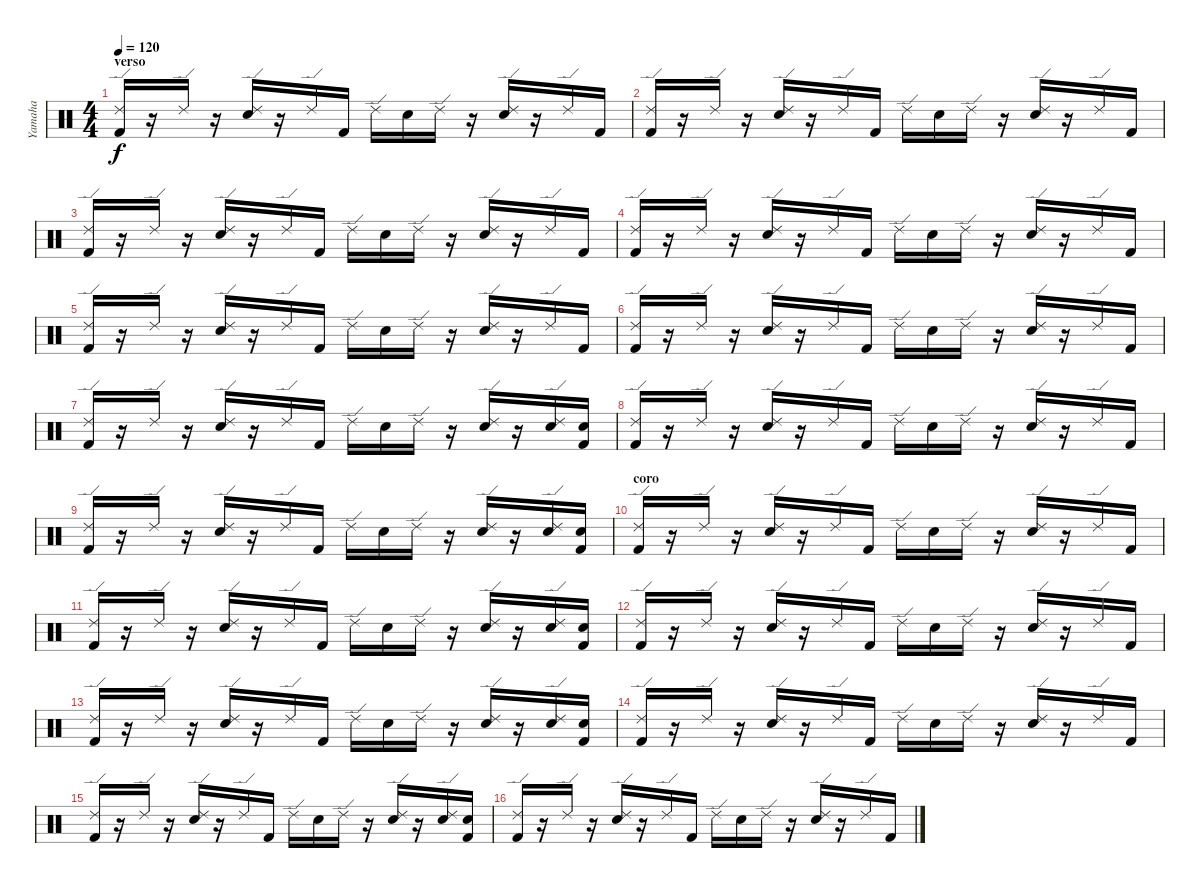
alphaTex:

\track ("Yamaha" "Yamaha") {instrument percussion}
\staff {score}
\articulation defaults
\ts (4 4)
\section ("" "verso ")
\tempo 120
\clef neutral
\ks c
("Ride (edge) 2" "Kick (hit) 2").16{dy f} r.16 "Ride (edge) 2".16 r.16 ("Ride (edge) 2" "Snare (hit) 2").16 r.16 "Ride (edge) 2".16 "Kick (hit) 2".16 "Ride (edge) 2".16 "Snare (hit) 2".16 "Ride (edge) 2".16 r.16 ("Ride (edge) 2" "Snare (hit) 2").16 r.16 "Ride (edge) 2".16 "Kick (hit) 2".16 |
("Ride (edge) 2" "Kick (hit) 2").16 r.16 "Ride (edge) 2".16 r.16 ("Ride (edge) 2" "Snare (hit) 2").16 r.16 "Ride (edge) 2".16 "Kick (hit) 2".16 "Ride (edge) 2".16 "Snare (hit) 2".16 "Ride (edge) 2".16 r.16 ("Ride (edge) 2" "Snare (hit) 2").16 r.16 "Ride (edge) 2".16 "Kick (hit) 2".16 |
("Ride (edge) 2" "Kick (hit) 2").16 r.16 "Ride (edge) 2".16 r.16 ("Ride (edge) 2" "Snare (hit) 2").16 r.16 "Ride (edge) 2".16 "Kick (hit) 2".16 "Ride (edge) 2".16 "Snare (hit) 2".16 "Ride (edge) 2".16 r.16 ("Ride (edge) 2" "Snare (hit) 2").16 r.16 "Ride (edge) 2".16 "Kick (hit) 2".16 |
("Ride (edge) 2" "Kick (hit) 2").16 r.16 "Ride (edge) 2".16 r.16 ("Ride (edge) 2" "Snare (hit) 2").16 r.16 "Ride (edge) 2".16 "Kick (hit) 2".16 "Ride (edge) 2".16 "Snare (hit) 2".16 "Ride (edge) 2".16 r.16 ("Ride (edge) 2" "Snare (hit) 2").16 r.16 "Ride (edge) 2".16 "Kick (hit) 2".16 |
("Ride (edge) 2" "Kick (hit) 2").16 r.16 "Ride (edge) 2".16 r.16 ("Ride (edge) 2" "Snare (hit) 2").16 r.16 "Ride (edge) 2".16 "Kick (hit) 2".16 "Ride (edge) 2".16 "Snare (hit) 2".16 "Ride (edge) 2".16 r.16 ("Ride (edge) 2" "Snare (hit) 2").16 r.16 "Ride (edge) 2".16 "Kick (hit) 2".16 |
("Ride (edge) 2" "Kick (hit) 2").16 r.16 "Ride (edge) 2".16 r.16 ("Ride (edge) 2" "Snare (hit) 2").16 r.16 "Ride (edge) 2".16 "Kick (hit) 2".16 "Ride (edge) 2".16 "Snare (hit) 2".16 "Ride (edge) 2".16 r.16 ("Ride (edge) 2" "Snare (hit) 2").16 r.16 "Ride (edge) 2".16 "Kick (hit) 2".16 |
("Ride (edge) 2" "Kick (hit) 2").16 r.16 "Ride (edge) 2".16 r.16 ("Ride (edge) 2" "Snare (hit) 2").16 r.16 "Ride (edge) 2".16 "Kick (hit) 2".16 "Ride (edge) 2".16 "Snare (hit) 2".16 "Ride (edge) 2".16 r.16 ("Ride (edge) 2" "Snare (hit) 2").16 r.16 ("Ride (edge) 2" "Snare (hit) 2").16 ("Snare (hit) 2" "Kick (hit) 2").16 |
("Ride (edge) 2" "Kick (hit) 2").16 r.16 "Ride (edge) 2".16 r.16 ("Ride (edge) 2" "Snare (hit) 2").16 r.16 "Ride (edge) 2".16 "Kick (hit) 2".16 "Ride (edge) 2".16 "Snare (hit) 2".16 "Ride (edge) 2".16 r.16 ("Ride (edge) 2" "Snare (hit) 2").16 r.16 "Ride (edge) 2".16 "Kick (hit) 2".16 |
("Ride (edge) 2" "Kick (hit) 2").16 r.16 "Ride (edge) 2".16 r.16 ("Ride (edge) 2" "Snare (hit) 2").16 r.16 "Ride (edge) 2".16 "Kick (hit) 2".16 "Ride (edge) 2".16 "Snare (hit) 2".16 "Ride (edge) 2".16 r.16 ("Ride (edge) 2" "Snare (hit) 2").16 r.16 ("Ride (edge) 2" "Snare (hit) 2").16 ("Snare (hit) 2" "Kick (hit) 2").16 |
\section ("" "coro")
("Ride (edge) 2" "Kick (hit) 2").16 r.16 "Ride (edge) 2".16 r.16 ("Ride (edge) 2" "Snare (hit) 2").16 r.16 "Ride (edge) 2".16 "Kick (hit) 2".16 "Ride (edge) 2".16 "Snare (hit) 2".16 "Ride (edge) 2".16 r.16 ("Ride (edge) 2" "Snare (hit) 2").16 r.16 "Ride (edge) 2".16 "Kick (hit) 2".16 |
("Ride (edge) 2" "Kick (hit) 2").16 r.16 "Ride (edge) 2".16 r.16 ("Ride (edge) 2" "Snare (hit) 2").16 r.16 "Ride (edge) 2".16 "Kick (hit) 2".16 "Ride (edge) 2".16 "Snare (hit) 2".16 "Ride (edge) 2".16 r.16 ("Ride (edge) 2" "Snare (hit) 2").16 r.16 ("Ride (edge) 2" "Snare (hit) 2").16 ("Snare (hit) 2" "Kick (hit) 2").16 |
("Ride (edge) 2" "Kick (hit) 2").16 r.16 "Ride (edge) 2".16 r.16 ("Ride (edge) 2" "Snare (hit) 2").16 r.16 "Ride (edge) 2".16 "Kick (hit) 2".16 "Ride (edge) 2".16 "Snare (hit) 2".16 "Ride (edge) 2".16 r.16 ("Ride (edge) 2" "Snare (hit) 2").16 r.16 "Ride (edge) 2".16 "Kick (hit) 2".16 |
("Ride (edge) 2" "Kick (hit) 2").16 r.16 "Ride (edge) 2".16 r.16 ("Ride (edge) 2" "Snare (hit) 2").16 r.16 "Ride (edge) 2".16 "Kick (hit) 2".16 "Ride (edge) 2".16 "Snare (hit) 2".16 "Ride (edge) 2".16 r.16 ("Ride (edge) 2" "Snare (hit) 2").16 r.16 ("Ride (edge) 2" "Snare (hit) 2").16 ("Snare (hit) 2" "Kick (hit) 2").16 |
("Ride (edge) 2" "Kick (hit) 2").16 r.16 "Ride (edge) 2".16 r.16 ("Ride (edge) 2" "Snare (hit) 2").16 r.16 "Ride (edge) 2".16 "Kick (hit) 2".16 "Ride (edge) 2".16 "Snare (hit) 2".16 "Ride (edge) 2".16 r.16 ("Ride (edge) 2" "Snare (hit) 2").16 r.16 "Ride (edge) 2".16 "Kick (hit) 2".16 |
("Ride (edge) 2" "Kick (hit) 2").16 r.16 "Ride (edge) 2".16 r.16 ("Ride (edge) 2" "Snare (hit) 2").16 r.16 "Ride (edge) 2".16 "Kick (hit) 2".16 "Ride (edge) 2".16 "Snare (hit) 2".16 "Ride (edge) 2".16 r.16 ("Ride (edge) 2" "Snare (hit) 2").16 r.16 ("Ride (edge) 2" "Snare (hit) 2").16 ("Snare (hit) 2" "Kick (hit) 2").16 |
("Ride (edge) 2" "Kick (hit) 2").16 r.16 "Ride (edge) 2".16 r.16 ("Ride (edge) 2" "Snare (hit) 2").16 r.16 "Ride (edge) 2".16 "Kick (hit) 2".16 "Ride (edge) 2".16 "Snare (hit) 2".16 "Ride (edge) 2".16 r.16 ("Ride (edge) 2" "Snare (hit) 2").16 r.16 "Ride (edge) 2".16 "Kick (hit) 2".16
